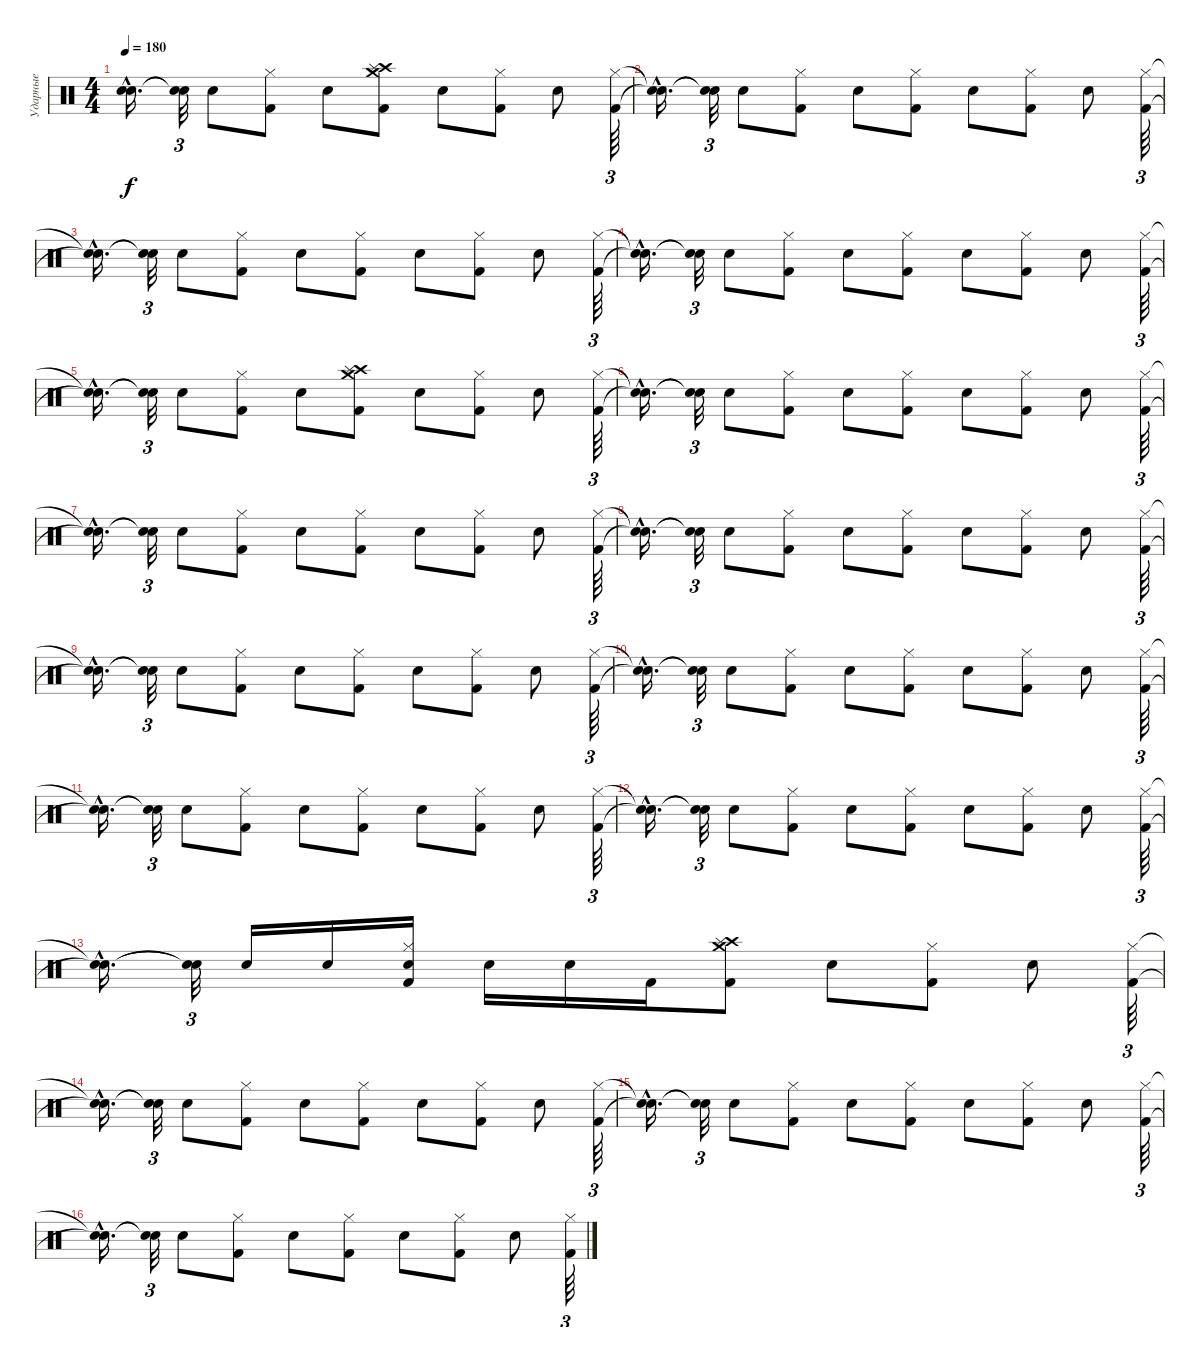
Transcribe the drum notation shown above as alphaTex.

\track ("Ударные" "Ударные") {instrument percussion}
\staff {score}
\articulation defaults
\ts (4 4)
\tempo 180
\clef neutral
\ks c
("Snare (hit)"{hac t} "Snare (hit)"{hac t}).16{d dy f} ("Snare (hit)"{t} "Snare (hit)"{t}).32{tu (3 2)} "Snare (hit) 2".8 ("Hi-Hat (closed)" "Kick (hit) 2").8 "Snare (hit) 2".8 ("Crash high (hit)" "Crash medium (hit)" "Splash (hit)" "Kick (hit) 2").8 "Snare (hit) 2".8 ("Hi-Hat (closed)" "Kick (hit) 2").8 "Snare (hit) 2".8 ("Hi-Hat (closed)" "Kick (hit) 2").64{tu (3 2)} |
("Snare (hit)"{hac t} "Snare (hit)"{hac t}).16{d} ("Snare (hit)"{t} "Snare (hit)"{t}).32{tu (3 2)} "Snare (hit) 2".8 ("Hi-Hat (closed)" "Kick (hit) 2").8 "Snare (hit) 2".8 ("Hi-Hat (closed)" "Kick (hit) 2").8 "Snare (hit) 2".8 ("Hi-Hat (closed)" "Kick (hit) 2").8 "Snare (hit) 2".8 ("Hi-Hat (closed)" "Kick (hit) 2").64{tu (3 2)} |
("Snare (hit)"{hac t} "Snare (hit)"{hac t}).16{d} ("Snare (hit)"{t} "Snare (hit)"{t}).32{tu (3 2)} "Snare (hit) 2".8 ("Hi-Hat (closed)" "Kick (hit) 2").8 "Snare (hit) 2".8 ("Hi-Hat (closed)" "Kick (hit) 2").8 "Snare (hit) 2".8 ("Hi-Hat (closed)" "Kick (hit) 2").8 "Snare (hit) 2".8 ("Hi-Hat (closed)" "Kick (hit) 2").64{tu (3 2)} |
("Snare (hit)"{hac t} "Snare (hit)"{hac t}).16{d} ("Snare (hit)"{t} "Snare (hit)"{t}).32{tu (3 2)} "Snare (hit) 2".8 ("Hi-Hat (closed)" "Kick (hit) 2").8 "Snare (hit) 2".8 ("Hi-Hat (closed)" "Kick (hit) 2").8 "Snare (hit) 2".8 ("Hi-Hat (closed)" "Kick (hit) 2").8 "Snare (hit) 2".8 ("Hi-Hat (closed)" "Kick (hit) 2").64{tu (3 2)} |
("Snare (hit)"{hac t} "Snare (hit)"{hac t}).16{d} ("Snare (hit)"{t} "Snare (hit)"{t}).32{tu (3 2)} "Snare (hit) 2".8 ("Hi-Hat (closed)" "Kick (hit) 2").8 "Snare (hit) 2".8 ("Crash high (hit)" "Crash medium (hit)" "Splash (hit)" "Kick (hit) 2").8 "Snare (hit) 2".8 ("Hi-Hat (closed)" "Kick (hit) 2").8 "Snare (hit) 2".8 ("Hi-Hat (closed)" "Kick (hit) 2").64{tu (3 2)} |
("Snare (hit)"{hac t} "Snare (hit)"{hac t}).16{d} ("Snare (hit)"{t} "Snare (hit)"{t}).32{tu (3 2)} "Snare (hit) 2".8 ("Hi-Hat (closed)" "Kick (hit) 2").8 "Snare (hit) 2".8 ("Hi-Hat (closed)" "Kick (hit) 2").8 "Snare (hit) 2".8 ("Hi-Hat (closed)" "Kick (hit) 2").8 "Snare (hit) 2".8 ("Hi-Hat (closed)" "Kick (hit) 2").64{tu (3 2)} |
("Snare (hit)"{hac t} "Snare (hit)"{hac t}).16{d} ("Snare (hit)"{t} "Snare (hit)"{t}).32{tu (3 2)} "Snare (hit) 2".8 ("Hi-Hat (closed)" "Kick (hit) 2").8 "Snare (hit) 2".8 ("Hi-Hat (closed)" "Kick (hit) 2").8 "Snare (hit) 2".8 ("Hi-Hat (closed)" "Kick (hit) 2").8 "Snare (hit) 2".8 ("Hi-Hat (closed)" "Kick (hit) 2").64{tu (3 2)} |
("Snare (hit)"{hac t} "Snare (hit)"{hac t}).16{d} ("Snare (hit)"{t} "Snare (hit)"{t}).32{tu (3 2)} "Snare (hit) 2".8 ("Hi-Hat (closed)" "Kick (hit) 2").8 "Snare (hit) 2".8 ("Hi-Hat (closed)" "Kick (hit) 2").8 "Snare (hit) 2".8 ("Hi-Hat (closed)" "Kick (hit) 2").8 "Snare (hit) 2".8 ("Hi-Hat (closed)" "Kick (hit) 2").64{tu (3 2)} |
("Snare (hit)"{hac t} "Snare (hit)"{hac t}).16{d} ("Snare (hit)"{t} "Snare (hit)"{t}).32{tu (3 2)} "Snare (hit) 2".8 ("Hi-Hat (closed)" "Kick (hit) 2").8 "Snare (hit) 2".8 ("Hi-Hat (closed)" "Kick (hit) 2").8 "Snare (hit) 2".8 ("Hi-Hat (closed)" "Kick (hit) 2").8 "Snare (hit) 2".8 ("Hi-Hat (closed)" "Kick (hit) 2").64{tu (3 2)} |
("Snare (hit)"{hac t} "Snare (hit)"{hac t}).16{d} ("Snare (hit)"{t} "Snare (hit)"{t}).32{tu (3 2)} "Snare (hit) 2".8 ("Hi-Hat (closed)" "Kick (hit) 2").8 "Snare (hit) 2".8 ("Hi-Hat (closed)" "Kick (hit) 2").8 "Snare (hit) 2".8 ("Hi-Hat (closed)" "Kick (hit) 2").8 "Snare (hit) 2".8 ("Hi-Hat (closed)" "Kick (hit) 2").64{tu (3 2)} |
("Snare (hit)"{hac t} "Snare (hit)"{hac t}).16{d} ("Snare (hit)"{t} "Snare (hit)"{t}).32{tu (3 2)} "Snare (hit) 2".8 ("Hi-Hat (closed)" "Kick (hit) 2").8 "Snare (hit) 2".8 ("Hi-Hat (closed)" "Kick (hit) 2").8 "Snare (hit) 2".8 ("Hi-Hat (closed)" "Kick (hit) 2").8 "Snare (hit) 2".8 ("Hi-Hat (closed)" "Kick (hit) 2").64{tu (3 2)} |
("Snare (hit)"{hac t} "Snare (hit)"{hac t}).16{d} ("Snare (hit)"{t} "Snare (hit)"{t}).32{tu (3 2)} "Snare (hit) 2".8 ("Hi-Hat (closed)" "Kick (hit) 2").8 "Snare (hit) 2".8 ("Hi-Hat (closed)" "Kick (hit) 2").8 "Snare (hit) 2".8 ("Hi-Hat (closed)" "Kick (hit) 2").8 "Snare (hit) 2".8 ("Hi-Hat (closed)" "Kick (hit) 2").64{tu (3 2)} |
("Snare (hit)"{hac t} "Snare (hit)"{hac t}).16{d} ("Snare (hit)"{t} "Snare (hit)"{t}).32{tu (3 2)} "Snare (hit) 2".16 "Snare (hit) 2".16 ("Hi-Hat (closed)" "Snare (hit) 2" "Kick (hit) 2").16 "Snare (hit) 2".16 "Snare (hit) 2".16 "Kick (hit) 2".16 ("Crash high (hit)" "Crash medium (hit)" "Splash (hit)" "Kick (hit) 2").8 "Snare (hit) 2".8 ("Hi-Hat (closed)" "Kick (hit) 2").8 "Snare (hit) 2".8 ("Hi-Hat (closed)" "Kick (hit) 2").64{tu (3 2)} |
("Snare (hit)"{hac t} "Snare (hit)"{hac t}).16{d} ("Snare (hit)"{t} "Snare (hit)"{t}).32{tu (3 2)} "Snare (hit) 2".8 ("Hi-Hat (closed)" "Kick (hit) 2").8 "Snare (hit) 2".8 ("Hi-Hat (closed)" "Kick (hit) 2").8 "Snare (hit) 2".8 ("Hi-Hat (closed)" "Kick (hit) 2").8 "Snare (hit) 2".8 ("Hi-Hat (closed)" "Kick (hit) 2").64{tu (3 2)} |
("Snare (hit)"{hac t} "Snare (hit)"{hac t}).16{d} ("Snare (hit)"{t} "Snare (hit)"{t}).32{tu (3 2)} "Snare (hit) 2".8 ("Hi-Hat (closed)" "Kick (hit) 2").8 "Snare (hit) 2".8 ("Hi-Hat (closed)" "Kick (hit) 2").8 "Snare (hit) 2".8 ("Hi-Hat (closed)" "Kick (hit) 2").8 "Snare (hit) 2".8 ("Hi-Hat (closed)" "Kick (hit) 2").64{tu (3 2)} |
("Snare (hit)"{hac t} "Snare (hit)"{hac t}).16{d} ("Snare (hit)"{t} "Snare (hit)"{t}).32{tu (3 2)} "Snare (hit) 2".8 ("Hi-Hat (closed)" "Kick (hit) 2").8 "Snare (hit) 2".8 ("Hi-Hat (closed)" "Kick (hit) 2").8 "Snare (hit) 2".8 ("Hi-Hat (closed)" "Kick (hit) 2").8 "Snare (hit) 2".8 ("Hi-Hat (closed)" "Kick (hit) 2").64{tu (3 2)}
